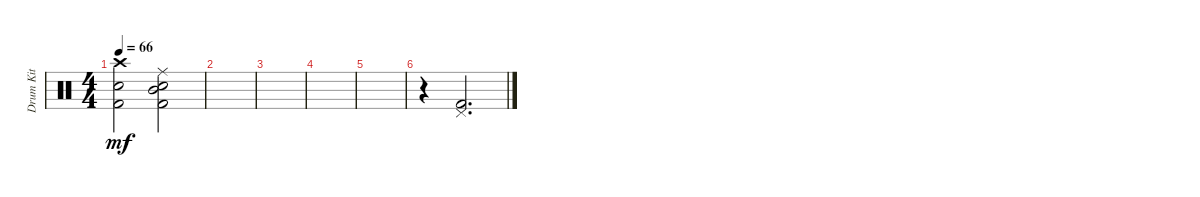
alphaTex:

\track ("Drum Kit" "Drum Kit") {instrument percussion}
\staff {score}
\articulation defaults
\ts (4 4)
\tempo 66
\clef neutral
\ks c
("Crash high (hit)" "Snare (hit) 2" "Kick (hit) 2").2{dy mf} ("Mid Tom (hit)" "Snare (hit) 2" "Ride (middle)" "Kick (hit) 2").2 |
|
|
|
|
r.4 ("Pedal Hi-Hat (hit)" "Kick (hit) 2").2{d}
